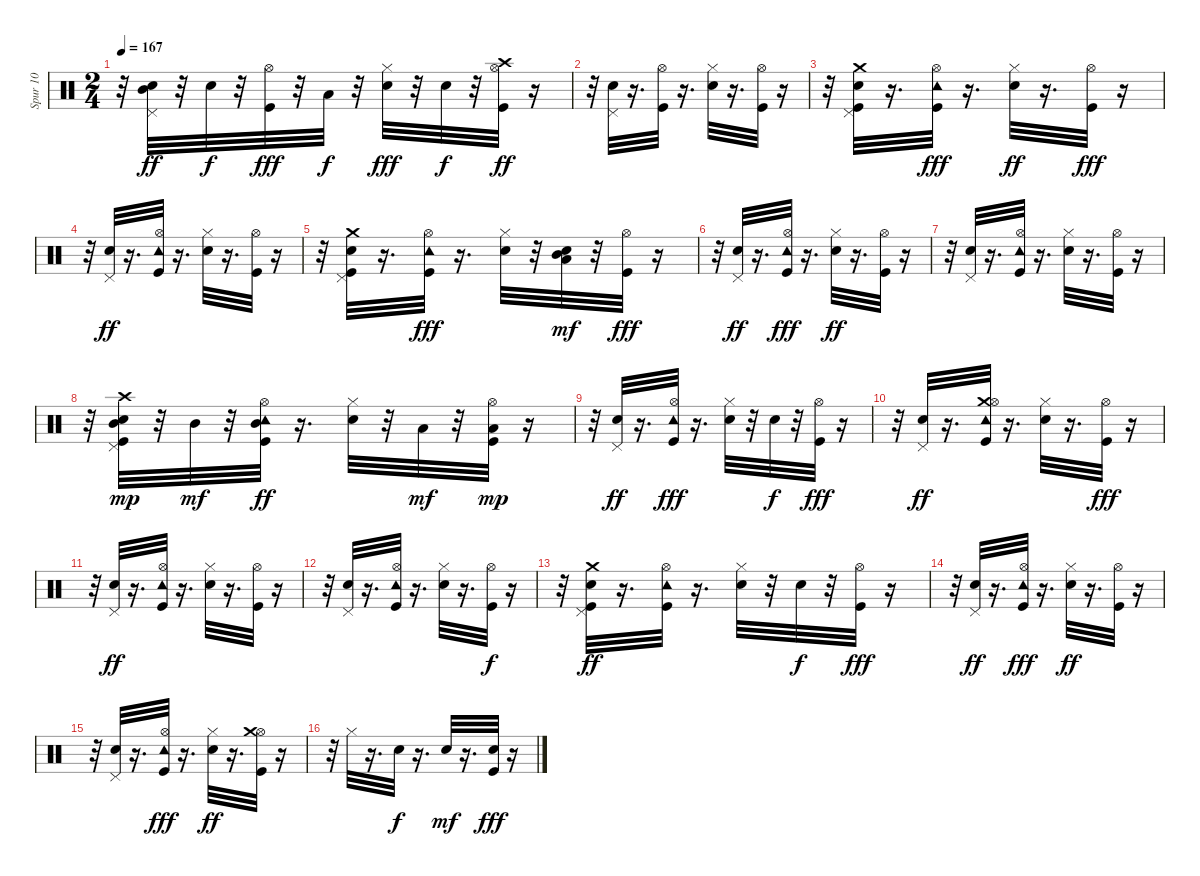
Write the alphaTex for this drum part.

\track ("Spur 10" "Spur 10") {instrument percussion}
\staff {score}
\articulation defaults
\ts (2 4)
\tempo 167
\clef neutral
\ks c
r.32{dy fff} ("Snare (hit) 2" "Mid Tom (hit)" "Pedal Hi-Hat (hit)").32{dy ff} r.32 "Snare (hit) 2".32{dy f} r.32 ("Kick (hit)" "Hi-Hat (open)").32{dy fff} r.32 "Low Tom (hit)".32{dy f} r.32 ("Hi-Hat (closed)" "Snare (hit) 2").32{dy fff} r.32 "Snare (hit) 2".32{dy f} r.32 ("Hi-Hat (open)" "Kick (hit)" "Crash high (hit)").32{dy ff} r.16 |
r.32 ("Pedal Hi-Hat (hit)" "Snare (hit) 2").32 r.16{d} ("Kick (hit)" "Hi-Hat (open)").32 r.16{d} ("Snare (hit) 2" "Hi-Hat (closed)").32 r.16{d} ("Kick (hit)" "Hi-Hat (open)").32 r.16 |
r.32 ("Snare (hit) 2" "Kick (hit)" "Pedal Hi-Hat (hit)" "Crash medium (hit)").32 r.16{d} ("Kick (hit)" "Tambourine (hit)" "Hi-Hat (open)").32{dy fff} r.16{d} ("Snare (hit) 2" "Hi-Hat (closed)").32{dy ff} r.16{d} ("Hi-Hat (open)" "Kick (hit)").32{dy fff} r.16 |
r.32 ("Pedal Hi-Hat (hit)" "Snare (hit) 2").32{dy ff} r.16{d} ("Tambourine (hit)" "Hi-Hat (open)" "Kick (hit)").32 r.16{d} ("Hi-Hat (closed)" "Snare (hit) 2").32 r.16{d} ("Hi-Hat (open)" "Kick (hit)").32 r.16 |
r.32 ("Crash medium (hit)" "Pedal Hi-Hat (hit)" "Kick (hit)" "Snare (hit) 2").32 r.16{d} ("Tambourine (hit)" "Hi-Hat (open)" "Kick (hit)").32{dy fff} r.16{d} ("Snare (hit) 2" "Hi-Hat (closed)").32 r.32 ("Snare (hit) 2" "Low Tom (hit)" "Mid Tom (hit)").32{dy mf} r.32 ("Kick (hit)" "Hi-Hat (open)").32{dy fff} r.16 |
r.32 ("Snare (hit) 2" "Pedal Hi-Hat (hit)").32{dy ff} r.16{d} ("Hi-Hat (open)" "Kick (hit)" "Tambourine (hit)").32{dy fff} r.16{d} ("Snare (hit) 2" "Hi-Hat (closed)").32{dy ff} r.16{d} ("Hi-Hat (open)" "Kick (hit)").32 r.16 |
r.32 ("Snare (hit) 2" "Pedal Hi-Hat (hit)").32 r.16{d} ("Kick (hit)" "Hi-Hat (open)" "Tambourine (hit)").32 r.16{d} ("Snare (hit) 2" "Hi-Hat (closed)").32 r.16{d} ("Kick (hit)" "Hi-Hat (open)").32 r.16 |
r.32 ("Pedal Hi-Hat (hit)" "Snare (hit) 2" "Mid Tom (hit)" "Kick (hit)" "Crash high (hit)").32{dy mp} r.32 "Mid Tom (hit)".32{dy mf} r.32 ("Tambourine (hit)" "Hi-Hat (open)" "Mid Tom (hit)" "Kick (hit)").32{dy ff} r.16{d} ("Snare (hit) 2" "Hi-Hat (closed)").32 r.32 "Low Tom (hit)".32{dy mf} r.32 ("Kick (hit)" "Hi-Hat (open)" "Low Tom (hit)").32{dy mp} r.16 |
r.32 ("Pedal Hi-Hat (hit)" "Snare (hit) 2").32{dy ff} r.16{d} ("Tambourine (hit)" "Kick (hit)" "Hi-Hat (open)").32{dy fff} r.16{d} ("Snare (hit) 2" "Hi-Hat (closed)").32 r.32 "Snare (hit) 2".32{dy f} r.32 ("Hi-Hat (open)" "Kick (hit)").32{dy fff} r.16 |
r.32 ("Snare (hit) 2" "Pedal Hi-Hat (hit)").32{dy ff} r.16{d} ("Crash medium (hit)" "Tambourine (hit)" "Hi-Hat (open)" "Kick (hit)").32 r.16{d} ("Snare (hit) 2" "Hi-Hat (closed)").32 r.16{d} ("Hi-Hat (open)" "Kick (hit)").32{dy fff} r.16 |
r.32 ("Pedal Hi-Hat (hit)" "Snare (hit) 2").32{dy ff} r.16{d} ("Hi-Hat (open)" "Tambourine (hit)" "Kick (hit)").32 r.16{d} ("Hi-Hat (closed)" "Snare (hit) 2").32 r.16{d} ("Hi-Hat (open)" "Kick (hit)").32 r.16 |
r.32 ("Snare (hit) 2" "Pedal Hi-Hat (hit)").32 r.16{d} ("Kick (hit)" "Tambourine (hit)" "Hi-Hat (open)").32 r.16{d} ("Snare (hit) 2" "Hi-Hat (closed)").32 r.16{d} ("Kick (hit)" "Hi-Hat (open)").32{dy f} r.16 |
r.32 ("Snare (hit) 2" "Crash medium (hit)" "Pedal Hi-Hat (hit)" "Kick (hit)").32{dy ff} r.16{d} ("Tambourine (hit)" "Hi-Hat (open)" "Kick (hit)").32 r.16{d} ("Snare (hit) 2" "Hi-Hat (closed)").32 r.32 "Snare (hit) 2".32{dy f} r.32 ("Hi-Hat (open)" "Kick (hit)").32{dy fff} r.16 |
r.32 ("Snare (hit) 2" "Pedal Hi-Hat (hit)").32{dy ff} r.16{d} ("Tambourine (hit)" "Hi-Hat (open)" "Kick (hit)").32{dy fff} r.16{d} ("Hi-Hat (closed)" "Snare (hit) 2").32{dy ff} r.16{d} ("Kick (hit)" "Hi-Hat (open)").32 r.16 |
r.32 ("Snare (hit) 2" "Pedal Hi-Hat (hit)").32 r.16{d} ("Tambourine (hit)" "Hi-Hat (open)" "Kick (hit)").32{dy fff} r.16{d} ("Snare (hit) 2" "Hi-Hat (closed)").32{dy ff} r.16{d} ("Hi-Hat (open)" "Kick (hit)" "Crash medium (hit)").32 r.16 |
r.32 "Hi-Hat (closed)".32 r.16{d} "Snare (hit) 2".32{dy f} r.16{d} "Snare (hit) 2".32{dy mf} r.16{d} ("Snare (hit) 2" "Kick (hit)").32{dy fff} r.16
